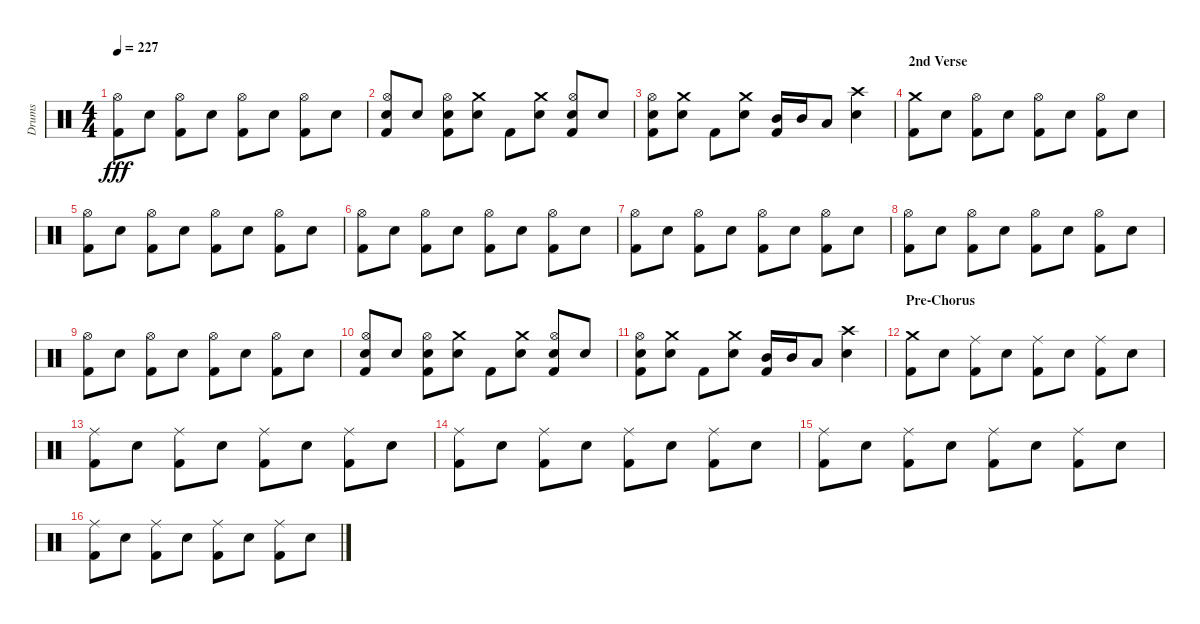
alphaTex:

\track ("Drums" "Drums") {instrument percussion}
\staff {score}
\articulation defaults
\ts (4 4)
\tempo 227
\clef neutral
\ks c
("Kick (hit) 2" "Hi-Hat (open)").8{dy fff} "Electric Snare (hit)".8 ("Kick (hit) 2" "Hi-Hat (open)").8 "Electric Snare (hit)".8 ("Kick (hit) 2" "Hi-Hat (open)").8 "Electric Snare (hit)".8 ("Kick (hit) 2" "Hi-Hat (open)").8 "Electric Snare (hit)".8 |
("Kick (hit) 2" "Electric Snare (hit)" "Hi-Hat (open)").8 "Electric Snare (hit)".8 ("Kick (hit) 2" "Electric Snare (hit)" "Hi-Hat (open)").8 ("Electric Snare (hit)" "Crash medium (hit)").8 "Kick (hit) 2".8 ("Electric Snare (hit)" "Crash medium (hit)").8 ("Kick (hit) 2" "Electric Snare (hit)" "Hi-Hat (open)").8 "Electric Snare (hit)".8 |
("Kick (hit) 2" "Electric Snare (hit)" "Hi-Hat (open)").8 ("Electric Snare (hit)" "Crash medium (hit)").8 "Kick (hit) 2".8 ("Electric Snare (hit)" "Crash medium (hit)").8 ("Kick (hit) 2" "Mid Tom (hit)").16 "Mid Tom (hit)".16 "Low Tom (hit)".8 ("Electric Snare (hit)" "Crash high (hit)").4 |
\section ("" "2nd Verse")
("Kick (hit) 2" "Crash medium (hit)").8 "Electric Snare (hit)".8 ("Kick (hit) 2" "Hi-Hat (open)").8 "Electric Snare (hit)".8 ("Kick (hit) 2" "Hi-Hat (open)").8 "Electric Snare (hit)".8 ("Kick (hit) 2" "Hi-Hat (open)").8 "Electric Snare (hit)".8 |
("Kick (hit) 2" "Hi-Hat (open)").8 "Electric Snare (hit)".8 ("Kick (hit) 2" "Hi-Hat (open)").8 "Electric Snare (hit)".8 ("Kick (hit) 2" "Hi-Hat (open)").8 "Electric Snare (hit)".8 ("Kick (hit) 2" "Hi-Hat (open)").8 "Electric Snare (hit)".8 |
("Kick (hit) 2" "Hi-Hat (open)").8 "Electric Snare (hit)".8 ("Kick (hit) 2" "Hi-Hat (open)").8 "Electric Snare (hit)".8 ("Kick (hit) 2" "Hi-Hat (open)").8 "Electric Snare (hit)".8 ("Kick (hit) 2" "Hi-Hat (open)").8 "Electric Snare (hit)".8 |
("Kick (hit) 2" "Hi-Hat (open)").8 "Electric Snare (hit)".8 ("Kick (hit) 2" "Hi-Hat (open)").8 "Electric Snare (hit)".8 ("Kick (hit) 2" "Hi-Hat (open)").8 "Electric Snare (hit)".8 ("Kick (hit) 2" "Hi-Hat (open)").8 "Electric Snare (hit)".8 |
("Kick (hit) 2" "Hi-Hat (open)").8 "Electric Snare (hit)".8 ("Kick (hit) 2" "Hi-Hat (open)").8 "Electric Snare (hit)".8 ("Kick (hit) 2" "Hi-Hat (open)").8 "Electric Snare (hit)".8 ("Kick (hit) 2" "Hi-Hat (open)").8 "Electric Snare (hit)".8 |
("Kick (hit) 2" "Hi-Hat (open)").8 "Electric Snare (hit)".8 ("Kick (hit) 2" "Hi-Hat (open)").8 "Electric Snare (hit)".8 ("Kick (hit) 2" "Hi-Hat (open)").8 "Electric Snare (hit)".8 ("Kick (hit) 2" "Hi-Hat (open)").8 "Electric Snare (hit)".8 |
("Kick (hit) 2" "Electric Snare (hit)" "Hi-Hat (open)").8 "Electric Snare (hit)".8 ("Kick (hit) 2" "Electric Snare (hit)" "Hi-Hat (open)").8 ("Electric Snare (hit)" "Crash medium (hit)").8 "Kick (hit) 2".8 ("Electric Snare (hit)" "Crash medium (hit)").8 ("Kick (hit) 2" "Electric Snare (hit)" "Hi-Hat (open)").8 "Electric Snare (hit)".8 |
("Kick (hit) 2" "Electric Snare (hit)" "Hi-Hat (open)").8 ("Electric Snare (hit)" "Crash medium (hit)").8 "Kick (hit) 2".8 ("Electric Snare (hit)" "Crash medium (hit)").8 ("Kick (hit) 2" "Mid Tom (hit)").16 "Mid Tom (hit)".16 "Low Tom (hit)".8 ("Electric Snare (hit)" "Crash high (hit)").4 |
\section ("" "Pre-Chorus")
("Kick (hit) 2" "Crash medium (hit)").8 "Electric Snare (hit)".8 ("Kick (hit) 2" "Ride (middle)").8 "Electric Snare (hit)".8 ("Kick (hit) 2" "Ride (middle)").8 "Electric Snare (hit)".8 ("Kick (hit) 2" "Ride (middle)").8 "Electric Snare (hit)".8 |
("Kick (hit) 2" "Ride (middle)").8 "Electric Snare (hit)".8 ("Kick (hit) 2" "Ride (middle)").8 "Electric Snare (hit)".8 ("Kick (hit) 2" "Ride (middle)").8 "Electric Snare (hit)".8 ("Kick (hit) 2" "Ride (middle)").8 "Electric Snare (hit)".8 |
("Kick (hit) 2" "Ride (middle)").8 "Electric Snare (hit)".8 ("Kick (hit) 2" "Ride (middle)").8 "Electric Snare (hit)".8 ("Kick (hit) 2" "Ride (middle)").8 "Electric Snare (hit)".8 ("Kick (hit) 2" "Ride (middle)").8 "Electric Snare (hit)".8 |
("Kick (hit) 2" "Ride (middle)").8 "Electric Snare (hit)".8 ("Kick (hit) 2" "Ride (middle)").8 "Electric Snare (hit)".8 ("Kick (hit) 2" "Ride (middle)").8 "Electric Snare (hit)".8 ("Kick (hit) 2" "Ride (middle)").8 "Electric Snare (hit)".8 |
("Kick (hit) 2" "Ride (middle)").8 "Electric Snare (hit)".8 ("Kick (hit) 2" "Ride (middle)").8 "Electric Snare (hit)".8 ("Kick (hit) 2" "Ride (middle)").8 "Electric Snare (hit)".8 ("Kick (hit) 2" "Ride (middle)").8 "Electric Snare (hit)".8
